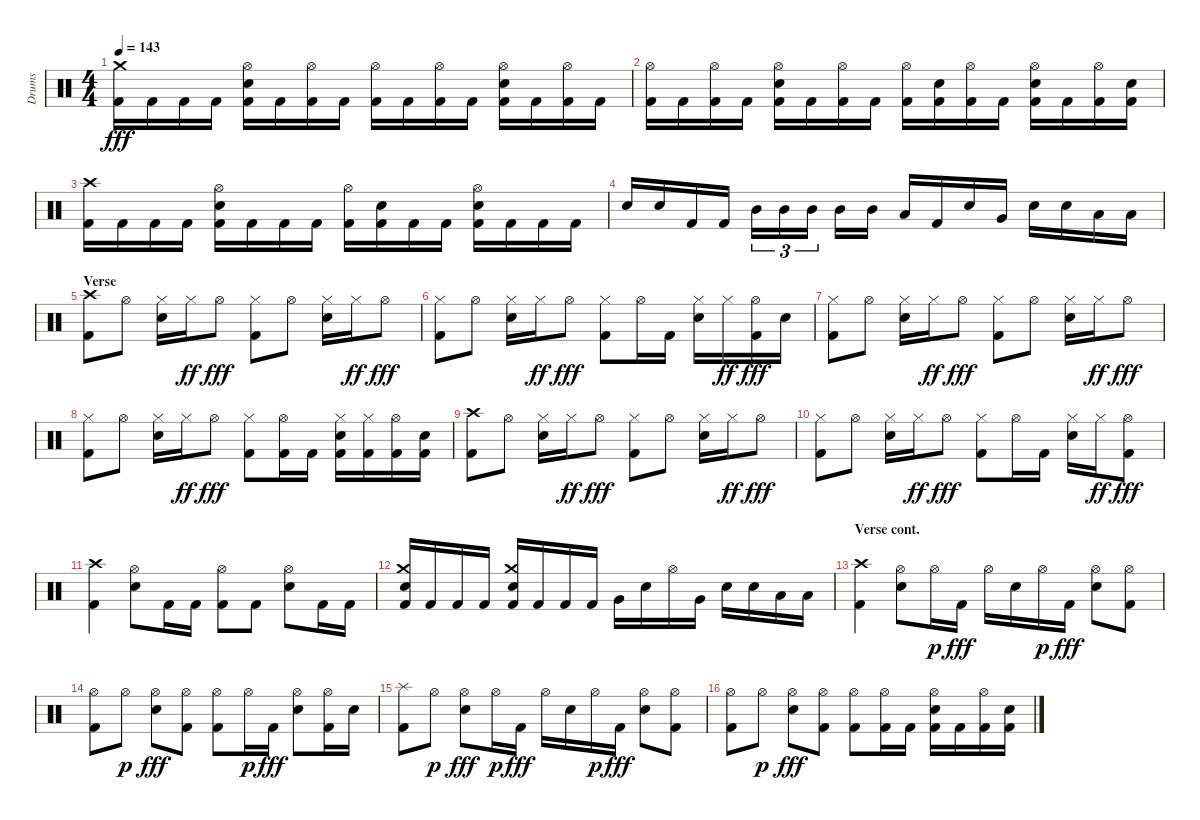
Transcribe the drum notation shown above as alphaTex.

\track ("Drums" "Drums") {instrument percussion}
\staff {score}
\articulation defaults
\ts (4 4)
\tempo 143
\clef neutral
\ks aminor
("Kick (hit) 2" "Crash medium (hit)").16{dy fff} "Kick (hit) 2".16 "Kick (hit) 2".16 "Kick (hit) 2".16 ("Kick (hit) 2" "Snare (hit) 2" "Hi-Hat (open)").16 "Kick (hit) 2".16 ("Kick (hit) 2" "Hi-Hat (open)").16 "Kick (hit) 2".16 ("Kick (hit) 2" "Hi-Hat (open)").16 "Kick (hit) 2".16 ("Kick (hit) 2" "Hi-Hat (open)").16 "Kick (hit) 2".16 ("Kick (hit) 2" "Snare (hit) 2" "Hi-Hat (open)").16 "Kick (hit) 2".16 ("Kick (hit) 2" "Hi-Hat (open)").16 "Kick (hit) 2".16 |
("Kick (hit) 2" "Hi-Hat (open)").16 "Kick (hit) 2".16 ("Kick (hit) 2" "Hi-Hat (open)").16 "Kick (hit) 2".16 ("Kick (hit) 2" "Snare (hit) 2" "Hi-Hat (open)").16 "Kick (hit) 2".16 ("Kick (hit) 2" "Hi-Hat (open)").16 "Kick (hit) 2".16 ("Kick (hit) 2" "Hi-Hat (open)").16 ("Kick (hit) 2" "Snare (hit) 2").16 ("Kick (hit) 2" "Hi-Hat (open)").16 "Kick (hit) 2".16 ("Kick (hit) 2" "Snare (hit) 2" "Hi-Hat (open)").16 "Kick (hit) 2".16 ("Kick (hit) 2" "Hi-Hat (open)").16 ("Kick (hit) 2" "Snare (hit) 2").16 |
("Kick (hit) 2" "Crash high (hit)").16 "Kick (hit) 2".16 "Kick (hit) 2".16 "Kick (hit) 2".16 ("Kick (hit) 2" "Snare (hit) 2" "Hi-Hat (open)").16 "Kick (hit) 2".16 "Kick (hit) 2".16 "Kick (hit) 2".16 ("Kick (hit) 2" "Hi-Hat (open)").16 ("Kick (hit) 2" "Snare (hit) 2").16 "Kick (hit) 2".16 "Kick (hit) 2".16 ("Kick (hit) 2" "Snare (hit) 2" "Hi-Hat (open)").16 "Kick (hit) 2".16 "Kick (hit) 2".16 "Kick (hit) 2".16 |
"Snare (hit) 2".16 "Snare (hit) 2".16 "Kick (hit) 2".16 "Kick (hit) 2".16 "Mid Tom (hit)".16{tu (3 2)} "Mid Tom (hit)".16{tu (3 2)} "Mid Tom (hit)".16{tu (3 2)} "Mid Tom (hit)".16 "Mid Tom (hit)".16 "Low Tom (hit)".16 "Kick (hit) 2".16 "Snare (hit) 2".16 "Very Low Tom (hit)".16 "Snare (hit) 2".16 "Snare (hit) 2".16 "Low Floor Tom (hit)".16 "Low Floor Tom (hit)".16 |
\section ("" "Verse")
("Kick (hit) 2" "Crash high (hit)").8 "Hi-Hat (open)".8 ("Snare (hit) 2" "Hi-Hat (closed)").16 "Hi-Hat (closed)".16{dy ff} "Hi-Hat (open)".8{dy fff} ("Kick (hit) 2" "Hi-Hat (closed)").8 "Hi-Hat (open)".8 ("Snare (hit) 2" "Hi-Hat (closed)").16 "Hi-Hat (closed)".16{dy ff} "Hi-Hat (open)".8{dy fff} |
("Kick (hit) 2" "Hi-Hat (closed)").8 "Hi-Hat (open)".8 ("Snare (hit) 2" "Hi-Hat (closed)").16 "Hi-Hat (closed)".16{dy ff} "Hi-Hat (open)".8{dy fff} ("Kick (hit) 2" "Hi-Hat (closed)").8 "Hi-Hat (open)".16 "Kick (hit) 2".16 ("Snare (hit) 2" "Hi-Hat (closed)").16 "Hi-Hat (closed)".16{dy ff} ("Kick (hit) 2" "Hi-Hat (open)").16{dy fff} "Snare (hit) 2".16 |
("Kick (hit) 2" "Hi-Hat (closed)").8 "Hi-Hat (open)".8 ("Snare (hit) 2" "Hi-Hat (closed)").16 "Hi-Hat (closed)".16{dy ff} "Hi-Hat (open)".8{dy fff} ("Kick (hit) 2" "Hi-Hat (closed)").8 "Hi-Hat (open)".8 ("Snare (hit) 2" "Hi-Hat (closed)").16 "Hi-Hat (closed)".16{dy ff} "Hi-Hat (open)".8{dy fff} |
("Kick (hit) 2" "Hi-Hat (closed)").8 "Hi-Hat (open)".8 ("Snare (hit) 2" "Hi-Hat (closed)").16 "Hi-Hat (closed)".16{dy ff} "Hi-Hat (open)".8{dy fff} ("Kick (hit) 2" "Hi-Hat (closed)").8 ("Kick (hit) 2" "Hi-Hat (open)").16 "Kick (hit) 2".16 ("Kick (hit) 2" "Snare (hit) 2" "Hi-Hat (closed)").16 ("Kick (hit) 2" "Hi-Hat (closed)").16 ("Kick (hit) 2" "Hi-Hat (open)").16 ("Kick (hit) 2" "Snare (hit) 2").16 |
("Kick (hit) 2" "Crash high (hit)").8 "Hi-Hat (open)".8 ("Snare (hit) 2" "Hi-Hat (closed)").16 "Hi-Hat (closed)".16{dy ff} "Hi-Hat (open)".8{dy fff} ("Kick (hit) 2" "Hi-Hat (closed)").8 "Hi-Hat (open)".8 ("Snare (hit) 2" "Hi-Hat (closed)").16 "Hi-Hat (closed)".16{dy ff} "Hi-Hat (open)".8{dy fff} |
("Kick (hit) 2" "Hi-Hat (closed)").8 "Hi-Hat (open)".8 ("Snare (hit) 2" "Hi-Hat (closed)").16 "Hi-Hat (closed)".16{dy ff} "Hi-Hat (open)".8{dy fff} ("Kick (hit) 2" "Hi-Hat (closed)").8 "Hi-Hat (open)".16 "Kick (hit) 2".16 ("Snare (hit) 2" "Hi-Hat (closed)").16 "Hi-Hat (closed)".16{dy ff} ("Kick (hit) 2" "Hi-Hat (open)").8{dy fff} |
("Kick (hit) 2" "Crash high (hit)").4 ("Snare (hit) 2" "Hi-Hat (open)").8 "Kick (hit) 2".16 "Kick (hit) 2".16 ("Kick (hit) 2" "Hi-Hat (open)").8 "Kick (hit) 2".8 ("Snare (hit) 2" "Hi-Hat (open)").8 "Kick (hit) 2".16 "Kick (hit) 2".16 |
("Kick (hit) 2" "Snare (hit) 2" "Crash medium (hit)").16 "Kick (hit) 2".16 "Kick (hit) 2".16 "Kick (hit) 2".16 ("Kick (hit) 2" "Snare (hit) 2" "Crash medium (hit)").16 "Kick (hit) 2".16 "Kick (hit) 2".16 "Kick (hit) 2".16 "Very Low Tom (hit)".16 "Snare (hit) 2".16 "Hi-Hat (open)".16 "Very Low Tom (hit)".16 "Snare (hit) 2".16 "Snare (hit) 2".16 "Low Floor Tom (hit)".16 "Low Floor Tom (hit)".16 |
\section ("" "Verse cont.")
("Kick (hit) 2" "Crash high (hit)").4 ("Snare (hit) 2" "Hi-Hat (open)").8 "Hi-Hat (open)".16{dy p} "Kick (hit) 2".16{dy fff} "Hi-Hat (open)".16 "Snare (hit) 2".16 "Hi-Hat (open)".16{dy p} "Kick (hit) 2".16{dy fff} ("Snare (hit) 2" "Hi-Hat (open)").8 ("Kick (hit) 2" "Hi-Hat (open)").8 |
("Kick (hit) 2" "Hi-Hat (open)").8 "Hi-Hat (open)".8{dy p} ("Snare (hit) 2" "Hi-Hat (open)").8{dy fff} ("Kick (hit) 2" "Hi-Hat (open)").8 ("Kick (hit) 2" "Hi-Hat (open)").8 "Hi-Hat (open)".16{dy p} "Kick (hit) 2".16{dy fff} ("Snare (hit) 2" "Hi-Hat (open)").8 ("Kick (hit) 2" "Hi-Hat (open)").16 "Snare (hit) 2".16 |
("Kick (hit) 2" "Splash (hit)").8 "Hi-Hat (open)".8{dy p} ("Snare (hit) 2" "Hi-Hat (open)").8{dy fff} "Hi-Hat (open)".16{dy p} "Kick (hit) 2".16{dy fff} "Hi-Hat (open)".16 "Snare (hit) 2".16 "Hi-Hat (open)".16{dy p} "Kick (hit) 2".16{dy fff} ("Snare (hit) 2" "Hi-Hat (open)").8 ("Kick (hit) 2" "Hi-Hat (open)").8 |
("Kick (hit) 2" "Hi-Hat (open)").8 "Hi-Hat (open)".8{dy p} ("Snare (hit) 2" "Hi-Hat (open)").8{dy fff} ("Kick (hit) 2" "Hi-Hat (open)").8 ("Kick (hit) 2" "Hi-Hat (open)").8 ("Kick (hit) 2" "Hi-Hat (open)").16 "Kick (hit) 2".16 ("Kick (hit) 2" "Snare (hit) 2" "Hi-Hat (open)").16 "Kick (hit) 2".16 ("Kick (hit) 2" "Hi-Hat (open)").16 ("Kick (hit) 2" "Snare (hit) 2").16
